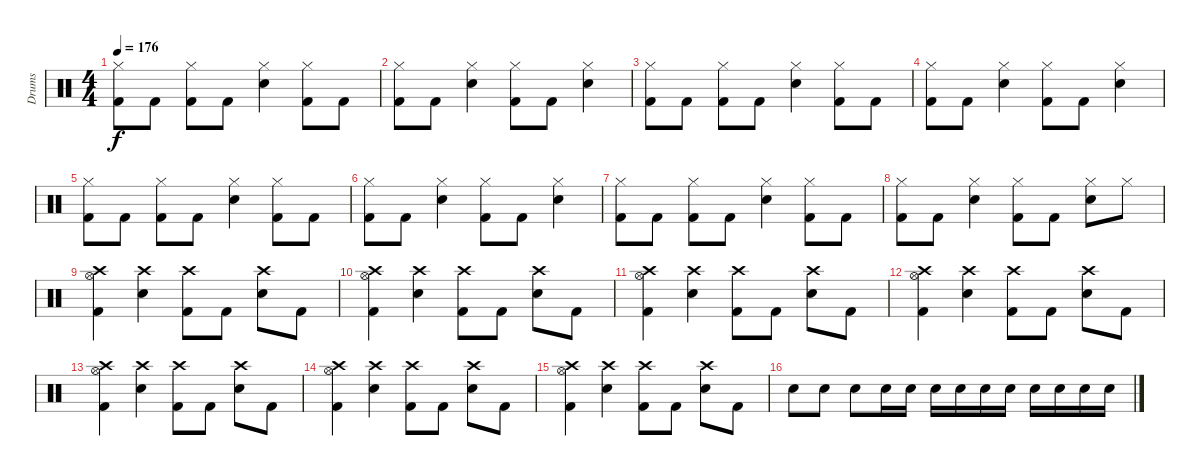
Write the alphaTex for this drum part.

\track ("Drums" "Drums") {instrument percussion}
\staff {score}
\articulation defaults
\ts (4 4)
\tempo 176
\clef neutral
\ks c
("Hi-Hat (closed)" "Kick (hit) 2").8{dy f} "Kick (hit) 2".8 ("Hi-Hat (closed)" "Kick (hit) 2").8 "Kick (hit) 2".8 ("Hi-Hat (closed)" "Snare (hit) 2").4 ("Hi-Hat (closed)" "Kick (hit) 2").8 "Kick (hit) 2".8 |
("Hi-Hat (closed)" "Kick (hit) 2").8 "Kick (hit) 2".8 ("Hi-Hat (closed)" "Snare (hit) 2").4 ("Hi-Hat (closed)" "Kick (hit) 2").8 "Kick (hit) 2".8 ("Hi-Hat (closed)" "Snare (hit) 2").4 |
("Hi-Hat (closed)" "Kick (hit) 2").8 "Kick (hit) 2".8 ("Hi-Hat (closed)" "Kick (hit) 2").8 "Kick (hit) 2".8 ("Hi-Hat (closed)" "Snare (hit) 2").4 ("Hi-Hat (closed)" "Kick (hit) 2").8 "Kick (hit) 2".8 |
("Hi-Hat (closed)" "Kick (hit) 2").8 "Kick (hit) 2".8 ("Hi-Hat (closed)" "Snare (hit) 2").4 ("Hi-Hat (closed)" "Kick (hit) 2").8 "Kick (hit) 2".8 ("Hi-Hat (closed)" "Snare (hit) 2").4 |
("Hi-Hat (closed)" "Kick (hit) 2").8 "Kick (hit) 2".8 ("Hi-Hat (closed)" "Kick (hit) 2").8 "Kick (hit) 2".8 ("Hi-Hat (closed)" "Snare (hit) 2").4 ("Hi-Hat (closed)" "Kick (hit) 2").8 "Kick (hit) 2".8 |
("Hi-Hat (closed)" "Kick (hit) 2").8 "Kick (hit) 2".8 ("Hi-Hat (closed)" "Snare (hit) 2").4 ("Hi-Hat (closed)" "Kick (hit) 2").8 "Kick (hit) 2".8 ("Hi-Hat (closed)" "Snare (hit) 2").4 |
("Hi-Hat (closed)" "Kick (hit) 2").8 "Kick (hit) 2".8 ("Hi-Hat (closed)" "Kick (hit) 2").8 "Kick (hit) 2".8 ("Hi-Hat (closed)" "Snare (hit) 2").4 ("Hi-Hat (closed)" "Kick (hit) 2").8 "Kick (hit) 2".8 |
("Hi-Hat (closed)" "Kick (hit) 2").8 "Kick (hit) 2".8 ("Hi-Hat (closed)" "Snare (hit) 2").4 ("Hi-Hat (closed)" "Kick (hit) 2").8 "Kick (hit) 2".8 ("Hi-Hat (closed)" "Snare (hit) 2").8 "Hi-Hat (closed)".8 |
("Kick (hit) 2" "Hi-Hat (open)" "Crash high (hit)").4 ("Snare (hit) 2" "Crash high (hit)").4 ("Kick (hit) 2" "Crash high (hit)").8 "Kick (hit) 2".8 ("Snare (hit) 2" "Crash high (hit)").8 "Kick (hit) 2".8 |
("Kick (hit) 2" "Hi-Hat (open)" "Crash high (hit)").4 ("Snare (hit) 2" "Crash high (hit)").4 ("Kick (hit) 2" "Crash high (hit)").8 "Kick (hit) 2".8 ("Snare (hit) 2" "Crash high (hit)").8 "Kick (hit) 2".8 |
("Kick (hit) 2" "Hi-Hat (open)" "Crash high (hit)").4 ("Snare (hit) 2" "Crash high (hit)").4 ("Kick (hit) 2" "Crash high (hit)").8 "Kick (hit) 2".8 ("Snare (hit) 2" "Crash high (hit)").8 "Kick (hit) 2".8 |
("Kick (hit) 2" "Hi-Hat (open)" "Crash high (hit)").4 ("Snare (hit) 2" "Crash high (hit)").4 ("Kick (hit) 2" "Crash high (hit)").8 "Kick (hit) 2".8 ("Snare (hit) 2" "Crash high (hit)").8 "Kick (hit) 2".8 |
("Kick (hit) 2" "Hi-Hat (open)" "Crash high (hit)").4 ("Snare (hit) 2" "Crash high (hit)").4 ("Kick (hit) 2" "Crash high (hit)").8 "Kick (hit) 2".8 ("Snare (hit) 2" "Crash high (hit)").8 "Kick (hit) 2".8 |
("Kick (hit) 2" "Hi-Hat (open)" "Crash high (hit)").4 ("Snare (hit) 2" "Crash high (hit)").4 ("Kick (hit) 2" "Crash high (hit)").8 "Kick (hit) 2".8 ("Snare (hit) 2" "Crash high (hit)").8 "Kick (hit) 2".8 |
("Kick (hit) 2" "Hi-Hat (open)" "Crash high (hit)").4 ("Snare (hit) 2" "Crash high (hit)").4 ("Kick (hit) 2" "Crash high (hit)").8 "Kick (hit) 2".8 ("Snare (hit) 2" "Crash high (hit)").8 "Kick (hit) 2".8 |
"Snare (hit) 2".8 "Snare (hit) 2".8 "Snare (hit) 2".8 "Snare (hit) 2".16 "Snare (hit) 2".16 "Snare (hit) 2".16 "Snare (hit) 2".16 "Snare (hit) 2".16 "Snare (hit) 2".16 "Snare (hit) 2".16 "Snare (hit) 2".16 "Snare (hit) 2".16 "Snare (hit) 2".16
